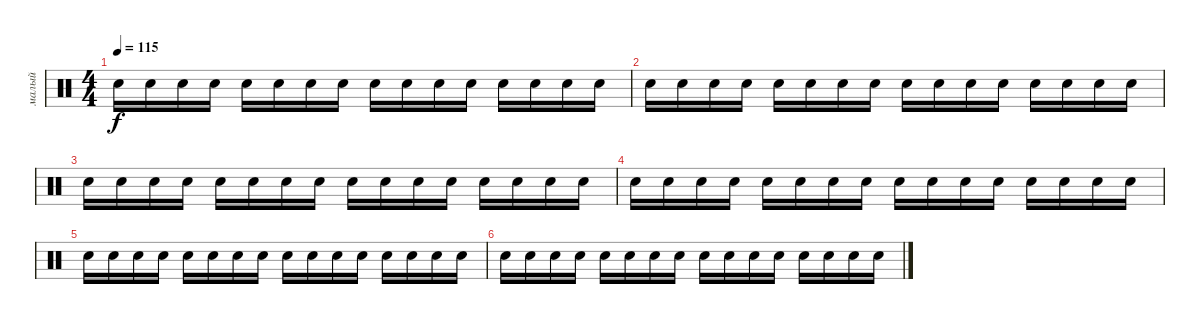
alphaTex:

\track ("малый" "малый") {mute instrument percussion}
\staff {score}
\articulation defaults
\ts (4 4)
\tempo 115
\clef neutral
\ks c "Electric Snare (hit)".16{dy f} "Electric Snare (hit)".16 "Electric Snare (hit)".16 "Electric Snare (hit)".16 "Electric Snare (hit)".16 "Electric Snare (hit)".16 "Electric Snare (hit)".16 "Electric Snare (hit)".16 "Electric Snare (hit)".16 "Electric Snare (hit)".16 "Electric Snare (hit)".16 "Electric Snare (hit)".16 "Electric Snare (hit)".16 "Electric Snare (hit)".16 "Electric Snare (hit)".16 "Electric Snare (hit)".16
|
"Electric Snare (hit)".16 "Electric Snare (hit)".16 "Electric Snare (hit)".16 "Electric Snare (hit)".16 "Electric Snare (hit)".16 "Electric Snare (hit)".16 "Electric Snare (hit)".16 "Electric Snare (hit)".16 "Electric Snare (hit)".16 "Electric Snare (hit)".16 "Electric Snare (hit)".16 "Electric Snare (hit)".16 "Electric Snare (hit)".16 "Electric Snare (hit)".16 "Electric Snare (hit)".16 "Electric Snare (hit)".16 |
"Electric Snare (hit)".16 "Electric Snare (hit)".16 "Electric Snare (hit)".16 "Electric Snare (hit)".16 "Electric Snare (hit)".16 "Electric Snare (hit)".16 "Electric Snare (hit)".16 "Electric Snare (hit)".16 "Electric Snare (hit)".16 "Electric Snare (hit)".16 "Electric Snare (hit)".16 "Electric Snare (hit)".16 "Electric Snare (hit)".16 "Electric Snare (hit)".16 "Electric Snare (hit)".16 "Electric Snare (hit)".16 |
"Electric Snare (hit)".16 "Electric Snare (hit)".16 "Electric Snare (hit)".16 "Electric Snare (hit)".16 "Electric Snare (hit)".16 "Electric Snare (hit)".16 "Electric Snare (hit)".16 "Electric Snare (hit)".16 "Electric Snare (hit)".16 "Electric Snare (hit)".16 "Electric Snare (hit)".16 "Electric Snare (hit)".16 "Electric Snare (hit)".16 "Electric Snare (hit)".16 "Electric Snare (hit)".16 "Electric Snare (hit)".16 |
"Electric Snare (hit)".16 "Electric Snare (hit)".16 "Electric Snare (hit)".16 "Electric Snare (hit)".16 "Electric Snare (hit)".16 "Electric Snare (hit)".16 "Electric Snare (hit)".16 "Electric Snare (hit)".16 "Electric Snare (hit)".16 "Electric Snare (hit)".16 "Electric Snare (hit)".16 "Electric Snare (hit)".16 "Electric Snare (hit)".16 "Electric Snare (hit)".16 "Electric Snare (hit)".16 "Electric Snare (hit)".16 |
"Electric Snare (hit)".16 "Electric Snare (hit)".16 "Electric Snare (hit)".16 "Electric Snare (hit)".16 "Electric Snare (hit)".16 "Electric Snare (hit)".16 "Electric Snare (hit)".16 "Electric Snare (hit)".16 "Electric Snare (hit)".16 "Electric Snare (hit)".16 "Electric Snare (hit)".16 "Electric Snare (hit)".16 "Electric Snare (hit)".16 "Electric Snare (hit)".16 "Electric Snare (hit)".16 "Electric Snare (hit)".16
